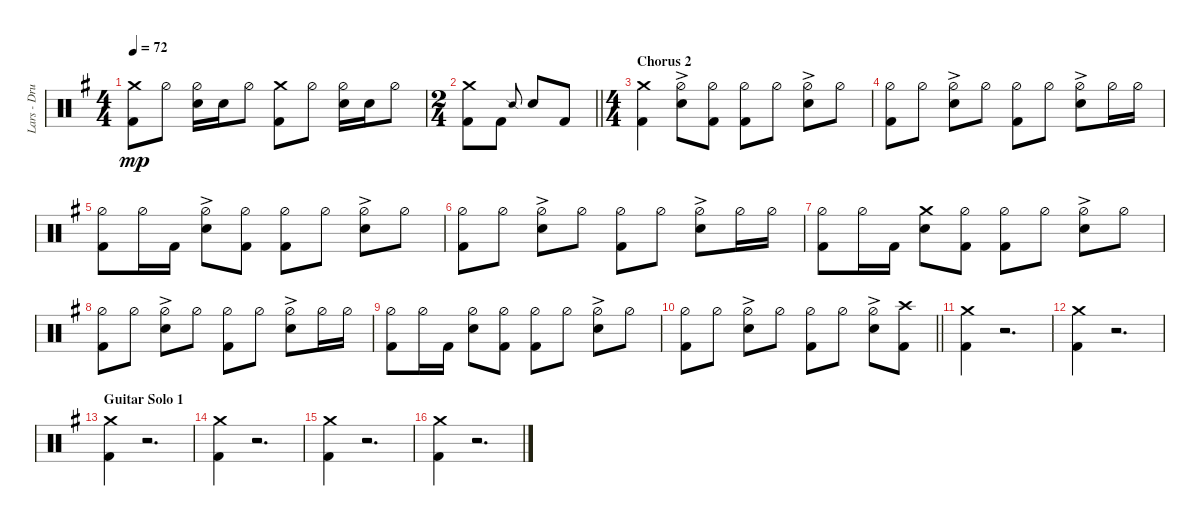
\track ("Lars - Drums" "Lars - Dru") {instrument percussion}
\staff {score}
\articulation defaults
\ts (4 4)
\tempo 72
\clef neutral
\ks eminor
("Kick (hit) 2" "Crash medium (hit)").8{dy mp} "Hi-Hat (half)".8 ("Hi-Hat (half)" "Snare (hit) 2").16 "Snare (hit) 2".16 "Hi-Hat (half)".8 ("Kick (hit) 2" "Crash medium (hit)").8 "Hi-Hat (half)".8 ("Hi-Hat (half)" "Snare (hit) 2").16 "Snare (hit) 2".16 "Hi-Hat (half)".8 |
\ts (2 4)
\barLineRight lightlight
("Crash medium (hit)" "Kick (hit) 2").8 "Kick (hit) 2".8 "Snare (side stick) 2".8{gr onbeat} "Snare (hit) 2".8 "Kick (hit) 2".8 |
\ts (4 4)
\section ("" "Chorus 2")
("Crash medium (hit)" "Kick (hit) 2").4{volume 6} ("Hi-Hat (half)"{ac} "Snare (hit) 2").8 ("Hi-Hat (half)" "Kick (hit) 2").8 ("Hi-Hat (half)" "Kick (hit) 2").8 "Hi-Hat (half)".8 ("Hi-Hat (half)"{ac} "Snare (hit) 2").8 "Hi-Hat (half)".8 |
("Hi-Hat (half)" "Kick (hit) 2").8 "Hi-Hat (half)".8 ("Hi-Hat (half)"{ac} "Snare (hit) 2").8 "Hi-Hat (half)".8 ("Hi-Hat (half)" "Kick (hit) 2").8 "Hi-Hat (half)".8 ("Hi-Hat (half)"{ac} "Snare (hit) 2").8 "Hi-Hat (half)".16 "Hi-Hat (half)".16 |
("Hi-Hat (half)" "Kick (hit) 2").8 "Hi-Hat (half)".16 "Kick (hit) 2".16 ("Hi-Hat (half)"{ac} "Snare (hit) 2").8 ("Hi-Hat (half)" "Kick (hit) 2").8 ("Hi-Hat (half)" "Kick (hit) 2").8 "Hi-Hat (half)".8 ("Hi-Hat (half)"{ac} "Snare (hit) 2").8 "Hi-Hat (half)".8 |
("Hi-Hat (half)" "Kick (hit) 2").8 "Hi-Hat (half)".8 ("Hi-Hat (half)"{ac} "Snare (hit) 2").8 "Hi-Hat (half)".8 ("Hi-Hat (half)" "Kick (hit) 2").8 "Hi-Hat (half)".8 ("Hi-Hat (half)"{ac} "Snare (hit) 2").8 "Hi-Hat (half)".16 "Hi-Hat (half)".16 |
("Hi-Hat (half)" "Kick (hit) 2").8 "Hi-Hat (half)".16 "Kick (hit) 2".16 ("Crash medium (hit)" "Snare (hit) 2").8 ("Hi-Hat (half)" "Kick (hit) 2").8 ("Hi-Hat (half)" "Kick (hit) 2").8 "Hi-Hat (half)".8 ("Hi-Hat (half)"{ac} "Snare (hit) 2").8 "Hi-Hat (half)".8 |
("Hi-Hat (half)" "Kick (hit) 2").8 "Hi-Hat (half)".8 ("Hi-Hat (half)"{ac} "Snare (hit) 2").8 "Hi-Hat (half)".8 ("Hi-Hat (half)" "Kick (hit) 2").8 "Hi-Hat (half)".8 ("Hi-Hat (half)"{ac} "Snare (hit) 2").8 "Hi-Hat (half)".16 "Hi-Hat (half)".16 |
("Hi-Hat (half)" "Kick (hit) 2").8 "Hi-Hat (half)".16 "Kick (hit) 2".16 ("Snare (hit) 2" "Hi-Hat (half)").8 ("Hi-Hat (half)" "Kick (hit) 2").8 ("Hi-Hat (half)" "Kick (hit) 2").8 "Hi-Hat (half)".8 ("Hi-Hat (half)"{ac} "Snare (hit) 2").8 "Hi-Hat (half)".8 |
\barLineRight lightlight
("Hi-Hat (half)" "Kick (hit) 2").8 "Hi-Hat (half)".8 ("Hi-Hat (half)"{ac} "Snare (hit) 2").8 "Hi-Hat (half)".8 ("Hi-Hat (half)" "Kick (hit) 2").8 "Hi-Hat (half)".8 ("Hi-Hat (half)"{ac} "Snare (hit) 2").8 ("Kick (hit) 2" "Crash high (hit)").8 |
("Crash medium (hit)" "Kick (hit) 2").4{volume 6} r.2{d} |
("Crash medium (hit)" "Kick (hit) 2").4 r.2{d} |
\section ("" "Guitar Solo 1")
("Crash medium (hit)" "Kick (hit) 2").4 r.2{d} |
("Crash medium (hit)" "Kick (hit) 2").4 r.2{d} |
("Crash medium (hit)" "Kick (hit) 2").4 r.2{d} |
("Crash medium (hit)" "Kick (hit) 2").4 r.2{d}
